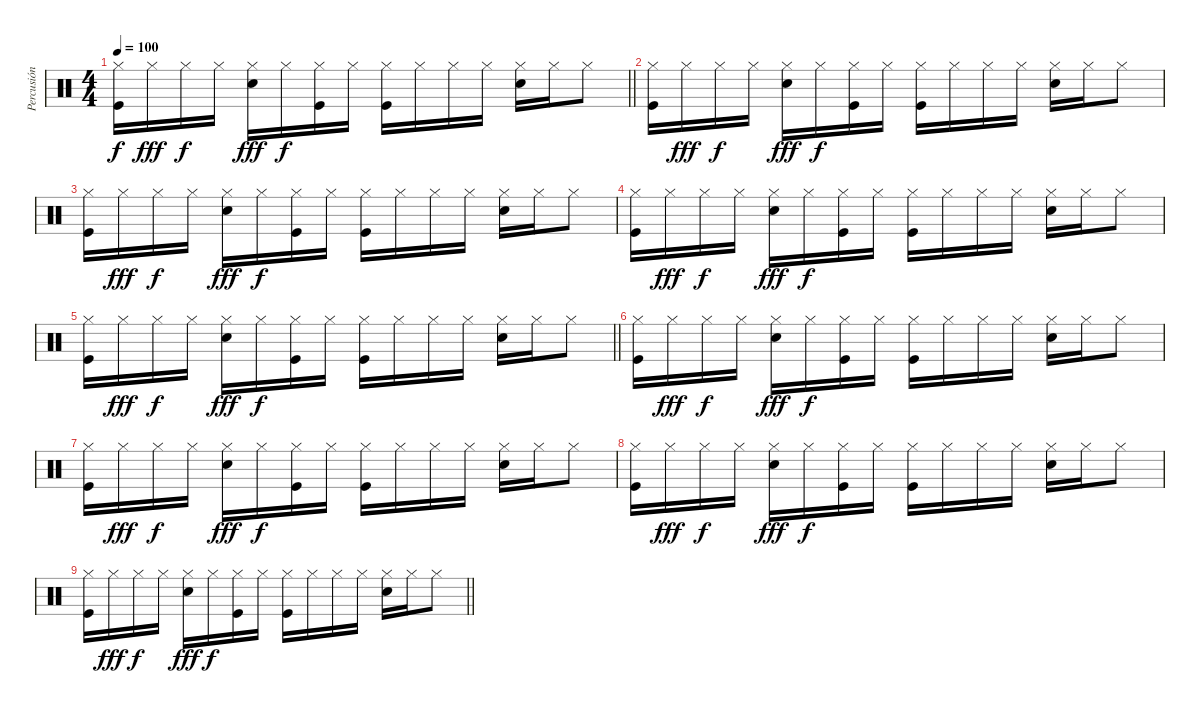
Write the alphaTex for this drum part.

\track ("Percusión" "Percusión") {instrument percussion}
\staff {score}
\articulation defaults
\ts (4 4)
\tempo 100
\clef neutral
\barLineRight lightlight
\ks c
("Hi-Hat (closed)" "Kick (hit)").16{dy f} "Hi-Hat (closed)".16{dy fff} "Hi-Hat (closed)".16{dy f} "Hi-Hat (closed)".16 ("Snare (hit) 2" "Hi-Hat (closed)").16{dy fff} "Hi-Hat (closed)".16{dy f} ("Hi-Hat (closed)" "Kick (hit)").16 "Hi-Hat (closed)".16 ("Kick (hit)" "Hi-Hat (closed)").16 "Hi-Hat (closed)".16 "Hi-Hat (closed)".16 "Hi-Hat (closed)".16 ("Snare (hit) 2" "Hi-Hat (closed)").16 "Hi-Hat (closed)".16 "Hi-Hat (closed)".8 |
("Hi-Hat (closed)" "Kick (hit)").16 "Hi-Hat (closed)".16{dy fff} "Hi-Hat (closed)".16{dy f} "Hi-Hat (closed)".16 ("Snare (hit) 2" "Hi-Hat (closed)").16{dy fff} "Hi-Hat (closed)".16{dy f} ("Hi-Hat (closed)" "Kick (hit)").16 "Hi-Hat (closed)".16 ("Kick (hit)" "Hi-Hat (closed)").16 "Hi-Hat (closed)".16 "Hi-Hat (closed)".16 "Hi-Hat (closed)".16 ("Snare (hit) 2" "Hi-Hat (closed)").16 "Hi-Hat (closed)".16 "Hi-Hat (closed)".8 |
("Hi-Hat (closed)" "Kick (hit)").16 "Hi-Hat (closed)".16{dy fff} "Hi-Hat (closed)".16{dy f} "Hi-Hat (closed)".16 ("Snare (hit) 2" "Hi-Hat (closed)").16{dy fff} "Hi-Hat (closed)".16{dy f} ("Hi-Hat (closed)" "Kick (hit)").16 "Hi-Hat (closed)".16 ("Kick (hit)" "Hi-Hat (closed)").16 "Hi-Hat (closed)".16 "Hi-Hat (closed)".16 "Hi-Hat (closed)".16 ("Snare (hit) 2" "Hi-Hat (closed)").16 "Hi-Hat (closed)".16 "Hi-Hat (closed)".8 |
("Hi-Hat (closed)" "Kick (hit)").16 "Hi-Hat (closed)".16{dy fff} "Hi-Hat (closed)".16{dy f} "Hi-Hat (closed)".16 ("Snare (hit) 2" "Hi-Hat (closed)").16{dy fff} "Hi-Hat (closed)".16{dy f} ("Hi-Hat (closed)" "Kick (hit)").16 "Hi-Hat (closed)".16 ("Kick (hit)" "Hi-Hat (closed)").16 "Hi-Hat (closed)".16 "Hi-Hat (closed)".16 "Hi-Hat (closed)".16 ("Snare (hit) 2" "Hi-Hat (closed)").16 "Hi-Hat (closed)".16 "Hi-Hat (closed)".8 |
\barLineRight lightlight
("Hi-Hat (closed)" "Kick (hit)").16 "Hi-Hat (closed)".16{dy fff} "Hi-Hat (closed)".16{dy f} "Hi-Hat (closed)".16 ("Snare (hit) 2" "Hi-Hat (closed)").16{dy fff} "Hi-Hat (closed)".16{dy f} ("Hi-Hat (closed)" "Kick (hit)").16 "Hi-Hat (closed)".16 ("Kick (hit)" "Hi-Hat (closed)").16 "Hi-Hat (closed)".16 "Hi-Hat (closed)".16 "Hi-Hat (closed)".16 ("Snare (hit) 2" "Hi-Hat (closed)").16 "Hi-Hat (closed)".16 "Hi-Hat (closed)".8 |
("Hi-Hat (closed)" "Kick (hit)").16 "Hi-Hat (closed)".16{dy fff} "Hi-Hat (closed)".16{dy f} "Hi-Hat (closed)".16 ("Snare (hit) 2" "Hi-Hat (closed)").16{dy fff} "Hi-Hat (closed)".16{dy f} ("Hi-Hat (closed)" "Kick (hit)").16 "Hi-Hat (closed)".16 ("Kick (hit)" "Hi-Hat (closed)").16 "Hi-Hat (closed)".16 "Hi-Hat (closed)".16 "Hi-Hat (closed)".16 ("Snare (hit) 2" "Hi-Hat (closed)").16 "Hi-Hat (closed)".16 "Hi-Hat (closed)".8 |
("Hi-Hat (closed)" "Kick (hit)").16 "Hi-Hat (closed)".16{dy fff} "Hi-Hat (closed)".16{dy f} "Hi-Hat (closed)".16 ("Snare (hit) 2" "Hi-Hat (closed)").16{dy fff} "Hi-Hat (closed)".16{dy f} ("Hi-Hat (closed)" "Kick (hit)").16 "Hi-Hat (closed)".16 ("Kick (hit)" "Hi-Hat (closed)").16 "Hi-Hat (closed)".16 "Hi-Hat (closed)".16 "Hi-Hat (closed)".16 ("Snare (hit) 2" "Hi-Hat (closed)").16 "Hi-Hat (closed)".16 "Hi-Hat (closed)".8 |
("Hi-Hat (closed)" "Kick (hit)").16 "Hi-Hat (closed)".16{dy fff} "Hi-Hat (closed)".16{dy f} "Hi-Hat (closed)".16 ("Snare (hit) 2" "Hi-Hat (closed)").16{dy fff} "Hi-Hat (closed)".16{dy f} ("Hi-Hat (closed)" "Kick (hit)").16 "Hi-Hat (closed)".16 ("Kick (hit)" "Hi-Hat (closed)").16 "Hi-Hat (closed)".16 "Hi-Hat (closed)".16 "Hi-Hat (closed)".16 ("Snare (hit) 2" "Hi-Hat (closed)").16 "Hi-Hat (closed)".16 "Hi-Hat (closed)".8 |
\barLineRight lightlight
("Hi-Hat (closed)" "Kick (hit)").16 "Hi-Hat (closed)".16{dy fff} "Hi-Hat (closed)".16{dy f} "Hi-Hat (closed)".16 ("Snare (hit) 2" "Hi-Hat (closed)").16{dy fff} "Hi-Hat (closed)".16{dy f} ("Hi-Hat (closed)" "Kick (hit)").16 "Hi-Hat (closed)".16 ("Kick (hit)" "Hi-Hat (closed)").16 "Hi-Hat (closed)".16 "Hi-Hat (closed)".16 "Hi-Hat (closed)".16 ("Snare (hit) 2" "Hi-Hat (closed)").16 "Hi-Hat (closed)".16 "Hi-Hat (closed)".8
